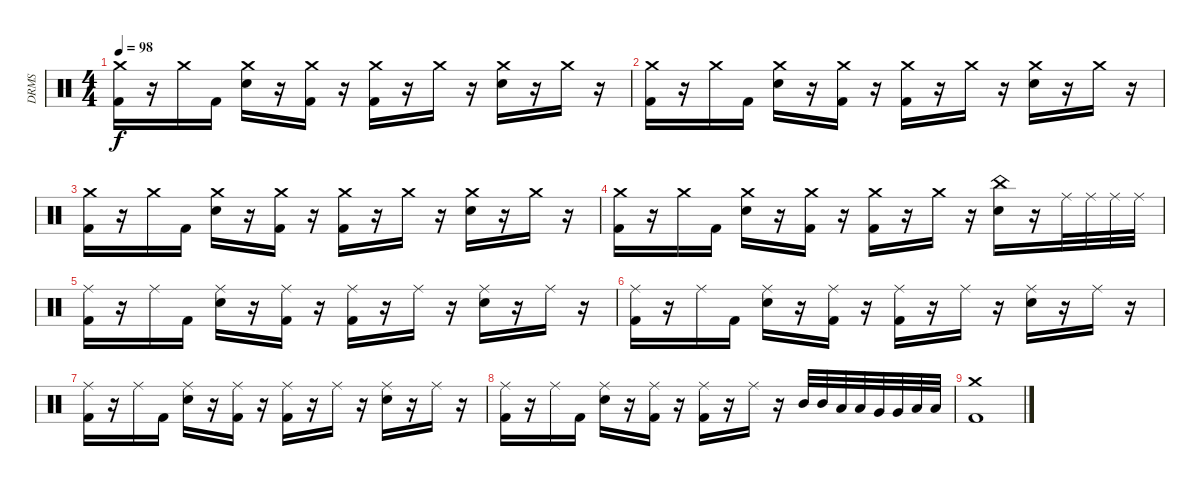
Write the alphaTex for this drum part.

\track ("DRMS" "DRMS") {instrument percussion}
\staff {score}
\articulation defaults
\ts (4 4)
\tempo 98
\clef neutral
\ks c
("Crash medium (hit)" "Kick (hit) 2").16{dy f} r.16 "Crash medium (hit)".16 "Kick (hit) 2".16 ("Crash medium (hit)" "Snare (hit) 2").16 r.16 ("Crash medium (hit)" "Kick (hit) 2").16 r.16 ("Crash medium (hit)" "Kick (hit) 2").16 r.16 "Crash medium (hit)".16 r.16 ("Crash medium (hit)" "Snare (hit) 2").16 r.16 "Crash medium (hit)".16 r.16 |
("Crash medium (hit)" "Kick (hit) 2").16 r.16 "Crash medium (hit)".16 "Kick (hit) 2".16 ("Crash medium (hit)" "Snare (hit) 2").16 r.16 ("Crash medium (hit)" "Kick (hit) 2").16 r.16 ("Crash medium (hit)" "Kick (hit) 2").16 r.16 "Crash medium (hit)".16 r.16 ("Crash medium (hit)" "Snare (hit) 2").16 r.16 "Crash medium (hit)".16 r.16 |
("Crash medium (hit)" "Kick (hit) 2").16 r.16 "Crash medium (hit)".16 "Kick (hit) 2".16 ("Crash medium (hit)" "Snare (hit) 2").16 r.16 ("Crash medium (hit)" "Kick (hit) 2").16 r.16 ("Crash medium (hit)" "Kick (hit) 2").16 r.16 "Crash medium (hit)".16 r.16 ("Crash medium (hit)" "Snare (hit) 2").16 r.16 "Crash medium (hit)".16 r.16 |
("Crash medium (hit)" "Kick (hit) 2").16 r.16 "Crash medium (hit)".16 "Kick (hit) 2".16 ("Crash medium (hit)" "Snare (hit) 2").16 r.16 ("Crash medium (hit)" "Kick (hit) 2").16 r.16 ("Crash medium (hit)" "Kick (hit) 2").16 r.16 "Crash medium (hit)".16 r.16 ("China (hit)" "Snare (hit) 2").16 r.16 "Ride (middle)".32 "Ride (middle)".32 "Ride (middle)".32 "Ride (middle)".32 |
("Ride (middle)" "Kick (hit) 2").16 r.16 "Ride (middle)".16 "Kick (hit) 2".16 ("Ride (middle)" "Snare (hit) 2").16 r.16 ("Ride (middle)" "Kick (hit) 2").16 r.16 ("Ride (middle)" "Kick (hit) 2").16 r.16 "Ride (middle)".16 r.16 ("Ride (middle)" "Snare (hit) 2").16 r.16 "Ride (middle)".16 r.16 |
("Ride (middle)" "Kick (hit) 2").16 r.16 "Ride (middle)".16 "Kick (hit) 2".16 ("Ride (middle)" "Snare (hit) 2").16 r.16 ("Ride (middle)" "Kick (hit) 2").16 r.16 ("Ride (middle)" "Kick (hit) 2").16 r.16 "Ride (middle)".16 r.16 ("Ride (middle)" "Snare (hit) 2").16 r.16 "Ride (middle)".16 r.16 |
("Ride (middle)" "Kick (hit) 2").16 r.16 "Ride (middle)".16 "Kick (hit) 2".16 ("Ride (middle)" "Snare (hit) 2").16 r.16 ("Ride (middle)" "Kick (hit) 2").16 r.16 ("Ride (middle)" "Kick (hit) 2").16 r.16 "Ride (middle)".16 r.16 ("Ride (middle)" "Snare (hit) 2").16 r.16 "Ride (middle)".16 r.16 |
("Ride (middle)" "Kick (hit) 2").16 r.16 "Ride (middle)".16 "Kick (hit) 2".16 ("Ride (middle)" "Snare (hit) 2").16 r.16 ("Ride (middle)" "Kick (hit) 2").16 r.16 ("Ride (middle)" "Kick (hit) 2").16 r.16 "Ride (middle)".16 r.16 "Mid Tom (hit)".32 "Mid Tom (hit)".32 "Low Tom (hit)".32 "Low Tom (hit)".32 "Very Low Tom (hit)".32 "Very Low Tom (hit)".32 "Low Tom (hit)".32 "Low Tom (hit)".32 |
("Crash medium (hit)" "Kick (hit) 2").1
